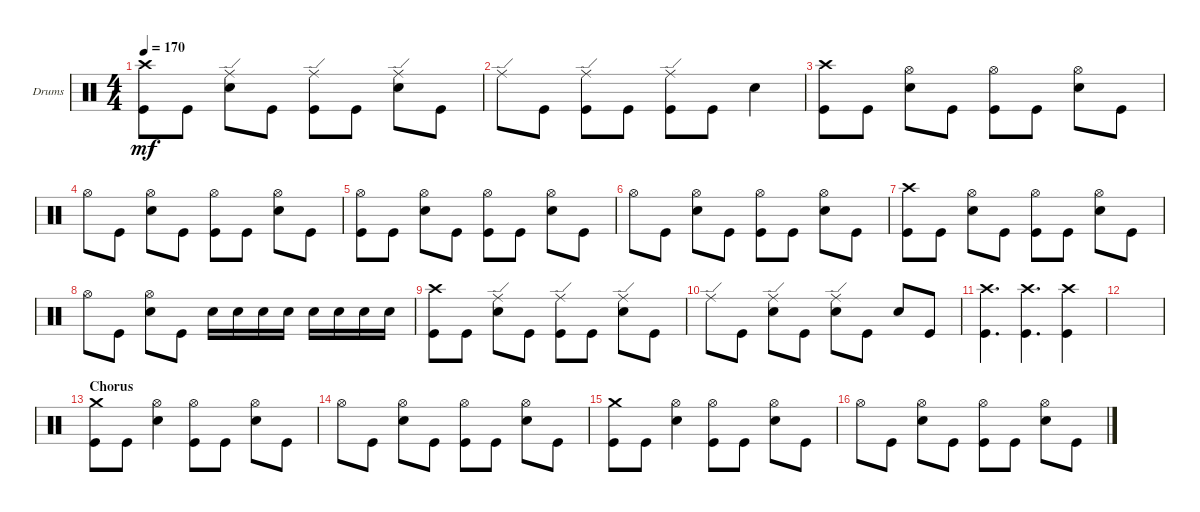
\defaultSystemsLayout 4
\bracketExtendMode groupsimilarinstruments
\firstSystemTrackNameOrientation horizontal
\otherSystemsTrackNameOrientation horizontal
\track ("Drumkit" "Drums") {instrument percussion}
\staff {score}
\articulation defaults
\ts (4 4)
\tempo 170
\clef neutral
\ks c
("Crash high (hit)" "Kick (hit)").8{dy mf} "Kick (hit)".8 ("Ride (edge)" "Snare (hit) 2").8 "Kick (hit)".8 ("Kick (hit)" "Ride (edge)").8 "Kick (hit)".8 ("Ride (edge)" "Snare (hit) 2").8 "Kick (hit)".8 |
"Ride (edge)".8 "Kick (hit)".8 ("Kick (hit)" "Ride (edge)").8 "Kick (hit)".8 ("Kick (hit)" "Ride (edge)").8 "Kick (hit)".8 "Snare (hit) 2".4 |
("Crash high (hit)" "Kick (hit)").8 "Kick (hit)".8 ("Snare (hit) 2" "Hi-Hat (open)").8 "Kick (hit)".8 ("Hi-Hat (open)" "Kick (hit)").8 "Kick (hit)".8 ("Snare (hit) 2" "Hi-Hat (open)").8 "Kick (hit)".8 |
"Hi-Hat (open)".8 "Kick (hit)".8 ("Snare (hit) 2" "Hi-Hat (open)").8 "Kick (hit)".8 ("Hi-Hat (open)" "Kick (hit)").8 "Kick (hit)".8 ("Snare (hit) 2" "Hi-Hat (open)").8 "Kick (hit)".8 |
("Kick (hit)" "Hi-Hat (open)").8 "Kick (hit)".8 ("Snare (hit) 2" "Hi-Hat (open)").8 "Kick (hit)".8 ("Hi-Hat (open)" "Kick (hit)").8 "Kick (hit)".8 ("Snare (hit) 2" "Hi-Hat (open)").8 "Kick (hit)".8 |
"Hi-Hat (open)".8 "Kick (hit)".8 ("Snare (hit) 2" "Hi-Hat (open)").8 "Kick (hit)".8 ("Hi-Hat (open)" "Kick (hit)").8 "Kick (hit)".8 ("Snare (hit) 2" "Hi-Hat (open)").8 "Kick (hit)".8 |
("Crash high (hit)" "Kick (hit)").8 "Kick (hit)".8 ("Snare (hit) 2" "Hi-Hat (open)").8 "Kick (hit)".8 ("Hi-Hat (open)" "Kick (hit)").8 "Kick (hit)".8 ("Snare (hit) 2" "Hi-Hat (open)").8 "Kick (hit)".8 |
"Hi-Hat (open)".8 "Kick (hit)".8 ("Snare (hit) 2" "Hi-Hat (open)").8 "Kick (hit)".8 "Snare (hit) 2".16 "Snare (hit) 2".16 "Snare (hit) 2".16 "Snare (hit) 2".16 "Snare (hit) 2".16 "Snare (hit) 2".16 "Snare (hit) 2".16 "Snare (hit) 2".16 |
("Crash high (hit)" "Kick (hit)").8 "Kick (hit)".8 ("Ride (edge)" "Snare (hit) 2").8 "Kick (hit)".8 ("Ride (edge)" "Kick (hit)").8 "Kick (hit)".8 ("Ride (edge)" "Snare (hit) 2").8 "Kick (hit)".8 |
"Ride (edge)".8 "Kick (hit)".8 ("Snare (hit) 2" "Ride (edge)").8 "Kick (hit)".8 ("Snare (hit) 2" "Ride (edge)").8 "Kick (hit)".8 "Snare (hit) 2".8 "Kick (hit)".8 |
("Crash high (hit)" "Kick (hit)").4{d} ("Crash high (hit)" "Kick (hit)").4{d} ("Crash high (hit)" "Kick (hit)").4 |
|
\section ("" "Chorus")
("Crash medium (hit)" "Kick (hit)").8 "Kick (hit)".8 ("Hi-Hat (open)" "Snare (hit) 2").4 ("Kick (hit)" "Hi-Hat (open)").8 "Kick (hit)".8 ("Hi-Hat (open)" "Snare (hit) 2").8 "Kick (hit)".8 |
"Hi-Hat (open)".8 "Kick (hit)".8 ("Snare (hit) 2" "Hi-Hat (open)").8 "Kick (hit)".8 ("Kick (hit)" "Hi-Hat (open)").8 "Kick (hit)".8 ("Snare (hit) 2" "Hi-Hat (open)").8 "Kick (hit)".8 |
("Crash medium (hit)" "Kick (hit)").8 "Kick (hit)".8 ("Hi-Hat (open)" "Snare (hit) 2").4 ("Kick (hit)" "Hi-Hat (open)").8 "Kick (hit)".8 ("Hi-Hat (open)" "Snare (hit) 2").8 "Kick (hit)".8 |
"Hi-Hat (open)".8 "Kick (hit)".8 ("Snare (hit) 2" "Hi-Hat (open)").8 "Kick (hit)".8 ("Kick (hit)" "Hi-Hat (open)").8 "Kick (hit)".8 ("Snare (hit) 2" "Hi-Hat (open)").8 "Kick (hit)".8
